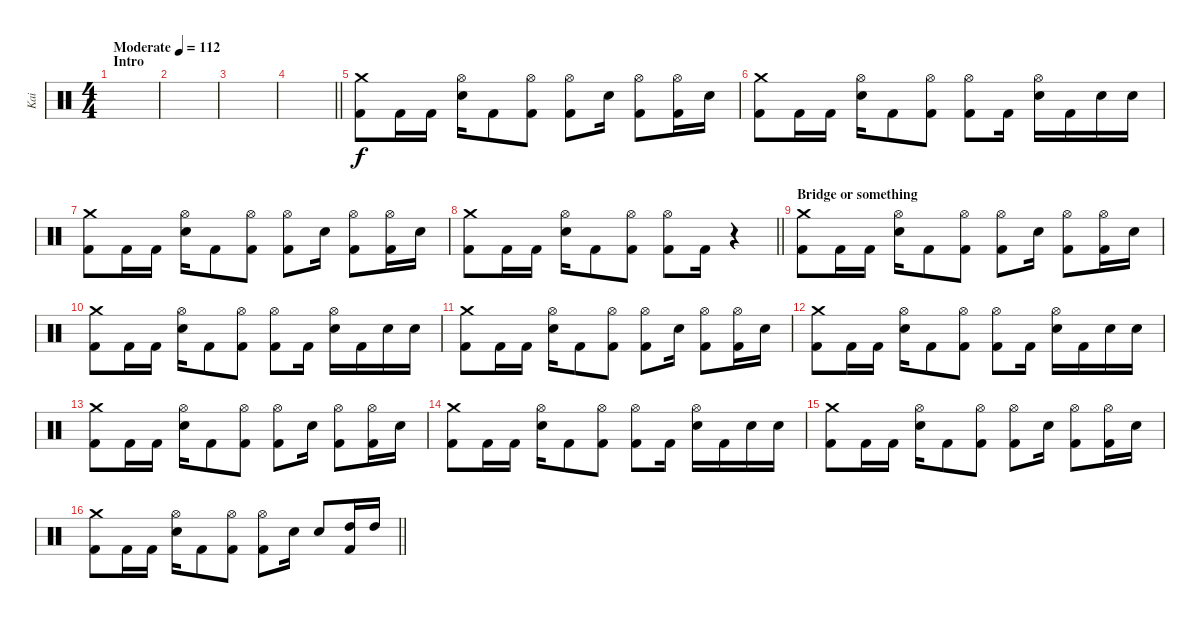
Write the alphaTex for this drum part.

\track ("Kai" "Kai") {mute instrument percussion}
\staff {score}
\articulation defaults
\ts (4 4)
\section ("" "Intro")
\tempo (112 "Moderate")
\clef neutral
\ks c
|
|
|
\barLineRight lightlight
|
\section ("" "")
("Crash medium (hit)" "Kick (hit) 2").8 "Kick (hit) 2".16 "Kick (hit) 2".16 ("Hi-Hat (open)" "Electric Snare (hit)").16 "Kick (hit) 2".8 ("Hi-Hat (open)" "Kick (hit) 2").8 ("Hi-Hat (open)" "Kick (hit) 2").8 "Electric Snare (hit)".16 ("Hi-Hat (open)" "Kick (hit) 2").8 ("Hi-Hat (open)" "Kick (hit) 2").16 "Electric Snare (hit)".16 |
("Crash medium (hit)" "Kick (hit) 2").8 "Kick (hit) 2".16 "Kick (hit) 2".16 ("Hi-Hat (open)" "Electric Snare (hit)").16 "Kick (hit) 2".8 ("Hi-Hat (open)" "Kick (hit) 2").8 ("Hi-Hat (open)" "Kick (hit) 2").8 "Kick (hit) 2".16 ("Hi-Hat (open)" "Electric Snare (hit)").16 "Kick (hit) 2".16 "Electric Snare (hit)".16 "Electric Snare (hit)".16 |
("Crash medium (hit)" "Kick (hit) 2").8 "Kick (hit) 2".16 "Kick (hit) 2".16 ("Hi-Hat (open)" "Electric Snare (hit)").16 "Kick (hit) 2".8 ("Hi-Hat (open)" "Kick (hit) 2").8 ("Hi-Hat (open)" "Kick (hit) 2").8 "Electric Snare (hit)".16 ("Hi-Hat (open)" "Kick (hit) 2").8 ("Hi-Hat (open)" "Kick (hit) 2").16 "Electric Snare (hit)".16 |
\barLineRight lightlight
("Crash medium (hit)" "Kick (hit) 2").8 "Kick (hit) 2".16 "Kick (hit) 2".16 ("Hi-Hat (open)" "Electric Snare (hit)").16 "Kick (hit) 2".8 ("Hi-Hat (open)" "Kick (hit) 2").8 ("Hi-Hat (open)" "Kick (hit) 2").8 "Kick (hit) 2".16 r.4 |
\section ("" "Bridge or something")
("Crash medium (hit)" "Kick (hit) 2").8 "Kick (hit) 2".16 "Kick (hit) 2".16 ("Hi-Hat (open)" "Electric Snare (hit)").16 "Kick (hit) 2".8 ("Hi-Hat (open)" "Kick (hit) 2").8 ("Hi-Hat (open)" "Kick (hit) 2").8 "Electric Snare (hit)".16 ("Hi-Hat (open)" "Kick (hit) 2").8 ("Hi-Hat (open)" "Kick (hit) 2").16 "Electric Snare (hit)".16 |
("Crash medium (hit)" "Kick (hit) 2").8 "Kick (hit) 2".16 "Kick (hit) 2".16 ("Hi-Hat (open)" "Electric Snare (hit)").16 "Kick (hit) 2".8 ("Hi-Hat (open)" "Kick (hit) 2").8 ("Hi-Hat (open)" "Kick (hit) 2").8 "Kick (hit) 2".16 ("Hi-Hat (open)" "Electric Snare (hit)").16 "Kick (hit) 2".16 "Electric Snare (hit)".16 "Electric Snare (hit)".16 |
("Crash medium (hit)" "Kick (hit) 2").8 "Kick (hit) 2".16 "Kick (hit) 2".16 ("Hi-Hat (open)" "Electric Snare (hit)").16 "Kick (hit) 2".8 ("Hi-Hat (open)" "Kick (hit) 2").8 ("Hi-Hat (open)" "Kick (hit) 2").8 "Electric Snare (hit)".16 ("Hi-Hat (open)" "Kick (hit) 2").8 ("Hi-Hat (open)" "Kick (hit) 2").16 "Electric Snare (hit)".16 |
("Crash medium (hit)" "Kick (hit) 2").8 "Kick (hit) 2".16 "Kick (hit) 2".16 ("Hi-Hat (open)" "Electric Snare (hit)").16 "Kick (hit) 2".8 ("Hi-Hat (open)" "Kick (hit) 2").8 ("Hi-Hat (open)" "Kick (hit) 2").8 "Kick (hit) 2".16 ("Hi-Hat (open)" "Electric Snare (hit)").16 "Kick (hit) 2".16 "Electric Snare (hit)".16 "Electric Snare (hit)".16 |
("Crash medium (hit)" "Kick (hit) 2").8 "Kick (hit) 2".16 "Kick (hit) 2".16 ("Hi-Hat (open)" "Electric Snare (hit)").16 "Kick (hit) 2".8 ("Hi-Hat (open)" "Kick (hit) 2").8 ("Hi-Hat (open)" "Kick (hit) 2").8 "Electric Snare (hit)".16 ("Hi-Hat (open)" "Kick (hit) 2").8 ("Hi-Hat (open)" "Kick (hit) 2").16 "Electric Snare (hit)".16 |
("Crash medium (hit)" "Kick (hit) 2").8 "Kick (hit) 2".16 "Kick (hit) 2".16 ("Hi-Hat (open)" "Electric Snare (hit)").16 "Kick (hit) 2".8 ("Hi-Hat (open)" "Kick (hit) 2").8 ("Hi-Hat (open)" "Kick (hit) 2").8 "Kick (hit) 2".16 ("Hi-Hat (open)" "Electric Snare (hit)").16 "Kick (hit) 2".16 "Electric Snare (hit)".16 "Electric Snare (hit)".16 |
("Crash medium (hit)" "Kick (hit) 2").8 "Kick (hit) 2".16 "Kick (hit) 2".16 ("Hi-Hat (open)" "Electric Snare (hit)").16 "Kick (hit) 2".8 ("Hi-Hat (open)" "Kick (hit) 2").8 ("Hi-Hat (open)" "Kick (hit) 2").8 "Electric Snare (hit)".16 ("Hi-Hat (open)" "Kick (hit) 2").8 ("Hi-Hat (open)" "Kick (hit) 2").16 "Electric Snare (hit)".16 |
\barLineRight lightlight
("Crash medium (hit)" "Kick (hit) 2").8 "Kick (hit) 2".16 "Kick (hit) 2".16 ("Hi-Hat (open)" "Electric Snare (hit)").16 "Kick (hit) 2".8 ("Hi-Hat (open)" "Kick (hit) 2").8 ("Hi-Hat (open)" "Kick (hit) 2").8 "Electric Snare (hit)".16 "Electric Snare (hit)".8 ("High Tom (hit)" "Kick (hit) 2").16 "High Tom (hit)".16
